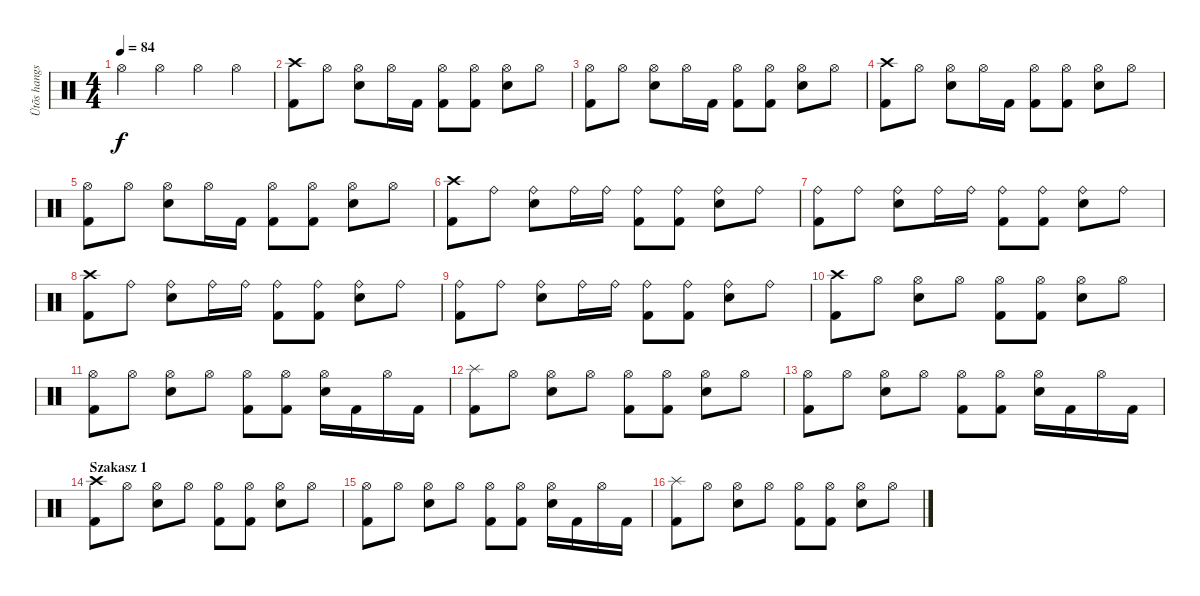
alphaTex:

\track ("Ütõs hangszer" "Ütõs hangs") {instrument percussion}
\staff {score}
\articulation defaults
\ts (4 4)
\tempo 84
\clef neutral
\ks c "Hi-Hat (open)".4{dy f} "Hi-Hat (open)".4 "Hi-Hat (open)".4 "Hi-Hat (open)".4
|
("Crash high (hit)" "Kick (hit) 2").8 "Hi-Hat (open)".8 ("Hi-Hat (open)" "Snare (hit) 2").8 "Hi-Hat (open)".16 "Kick (hit) 2".16 ("Hi-Hat (open)" "Kick (hit) 2").8 ("Hi-Hat (open)" "Kick (hit) 2").8 ("Hi-Hat (open)" "Snare (hit) 2").8 "Hi-Hat (open)".8 |
("Hi-Hat (open)" "Kick (hit) 2").8 "Hi-Hat (open)".8 ("Hi-Hat (open)" "Snare (hit) 2").8 "Hi-Hat (open)".16 "Kick (hit) 2".16 ("Hi-Hat (open)" "Kick (hit) 2").8 ("Hi-Hat (open)" "Kick (hit) 2").8 ("Hi-Hat (open)" "Snare (hit) 2").8 "Hi-Hat (open)".8 |
("Crash high (hit)" "Kick (hit) 2").8 "Hi-Hat (open)".8 ("Hi-Hat (open)" "Snare (hit) 2").8 "Hi-Hat (open)".16 "Kick (hit) 2".16 ("Hi-Hat (open)" "Kick (hit) 2").8 ("Hi-Hat (open)" "Kick (hit) 2").8 ("Hi-Hat (open)" "Snare (hit) 2").8 "Hi-Hat (open)".8 |
("Hi-Hat (open)" "Kick (hit) 2").8 "Hi-Hat (open)".8 ("Hi-Hat (open)" "Snare (hit) 2").8 "Hi-Hat (open)".16 "Kick (hit) 2".16 ("Hi-Hat (open)" "Kick (hit) 2").8 ("Hi-Hat (open)" "Kick (hit) 2").8 ("Hi-Hat (open)" "Snare (hit) 2").8 "Hi-Hat (open)".8 |
("Crash high (hit)" "Kick (hit) 2").8 "Ride (bell)".8 ("Ride (bell)" "Snare (hit) 2").8 "Ride (bell)".16 "Ride (bell)".16 ("Ride (bell)" "Kick (hit) 2").8 ("Ride (bell)" "Kick (hit) 2").8 ("Ride (bell)" "Snare (hit) 2").8 "Ride (bell)".8 |
("Ride (bell)" "Kick (hit) 2").8 "Ride (bell)".8 ("Ride (bell)" "Snare (hit) 2").8 "Ride (bell)".16 "Ride (bell)".16 ("Ride (bell)" "Kick (hit) 2").8 ("Ride (bell)" "Kick (hit) 2").8 ("Ride (bell)" "Snare (hit) 2").8 "Ride (bell)".8 |
("Crash high (hit)" "Kick (hit) 2").8 "Ride (bell)".8 ("Ride (bell)" "Snare (hit) 2").8 "Ride (bell)".16 "Ride (bell)".16 ("Ride (bell)" "Kick (hit) 2").8 ("Ride (bell)" "Kick (hit) 2").8 ("Ride (bell)" "Snare (hit) 2").8 "Ride (bell)".8 |
("Ride (bell)" "Kick (hit) 2").8 "Ride (bell)".8 ("Ride (bell)" "Snare (hit) 2").8 "Ride (bell)".16 "Ride (bell)".16 ("Ride (bell)" "Kick (hit) 2").8 ("Ride (bell)" "Kick (hit) 2").8 ("Ride (bell)" "Snare (hit) 2").8 "Ride (bell)".8 |
("Crash high (hit)" "Kick (hit) 2").8 "Hi-Hat (open)".8 ("Hi-Hat (open)" "Snare (hit) 2").8 "Hi-Hat (open)".8 ("Hi-Hat (open)" "Kick (hit) 2").8 ("Hi-Hat (open)" "Kick (hit) 2").8 ("Hi-Hat (open)" "Snare (hit) 2").8 "Hi-Hat (open)".8 |
("Hi-Hat (open)" "Kick (hit) 2").8 "Hi-Hat (open)".8 ("Hi-Hat (open)" "Snare (hit) 2").8 "Hi-Hat (open)".8 ("Hi-Hat (open)" "Kick (hit) 2").8 ("Hi-Hat (open)" "Kick (hit) 2").8 ("Hi-Hat (open)" "Snare (hit) 2").16 "Kick (hit) 2".16 "Hi-Hat (open)".16 "Kick (hit) 2".16 |
("Splash (hit)" "Kick (hit) 2").8 "Hi-Hat (open)".8 ("Hi-Hat (open)" "Snare (hit) 2").8 "Hi-Hat (open)".8 ("Hi-Hat (open)" "Kick (hit) 2").8 ("Hi-Hat (open)" "Kick (hit) 2").8 ("Hi-Hat (open)" "Snare (hit) 2").8 "Hi-Hat (open)".8 |
("Hi-Hat (open)" "Kick (hit) 2").8 "Hi-Hat (open)".8 ("Hi-Hat (open)" "Snare (hit) 2").8 "Hi-Hat (open)".8 ("Hi-Hat (open)" "Kick (hit) 2").8 ("Hi-Hat (open)" "Kick (hit) 2").8 ("Hi-Hat (open)" "Snare (hit) 2").16 "Kick (hit) 2".16 "Hi-Hat (open)".16 "Kick (hit) 2".16 |
\section ("" "Szakasz 1")
("Crash high (hit)" "Kick (hit) 2").8 "Hi-Hat (open)".8 ("Hi-Hat (open)" "Snare (hit) 2").8 "Hi-Hat (open)".8 ("Hi-Hat (open)" "Kick (hit) 2").8 ("Hi-Hat (open)" "Kick (hit) 2").8 ("Hi-Hat (open)" "Snare (hit) 2").8 "Hi-Hat (open)".8 |
("Hi-Hat (open)" "Kick (hit) 2").8 "Hi-Hat (open)".8 ("Hi-Hat (open)" "Snare (hit) 2").8 "Hi-Hat (open)".8 ("Hi-Hat (open)" "Kick (hit) 2").8 ("Hi-Hat (open)" "Kick (hit) 2").8 ("Hi-Hat (open)" "Snare (hit) 2").16 "Kick (hit) 2".16 "Hi-Hat (open)".16 "Kick (hit) 2".16 |
("Splash (hit)" "Kick (hit) 2").8 "Hi-Hat (open)".8 ("Hi-Hat (open)" "Snare (hit) 2").8 "Hi-Hat (open)".8 ("Hi-Hat (open)" "Kick (hit) 2").8 ("Hi-Hat (open)" "Kick (hit) 2").8 ("Hi-Hat (open)" "Snare (hit) 2").8 "Hi-Hat (open)".8
